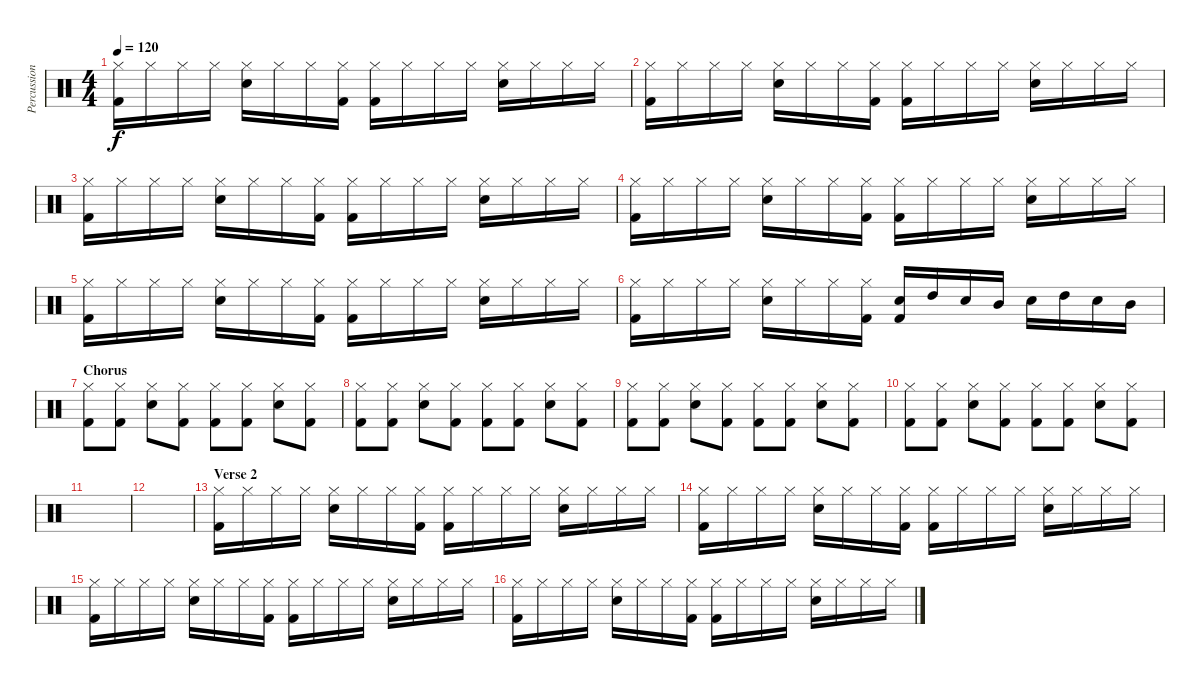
\track ("Percussion" "Percussion") {instrument percussion}
\staff {score}
\articulation defaults
\ts (4 4)
\tempo 120
\clef neutral
\ks c
("Hi-Hat (closed)" "Kick (hit) 2").16{dy f} "Hi-Hat (closed)".16 "Hi-Hat (closed)".16 "Hi-Hat (closed)".16 ("Hi-Hat (closed)" "Electric Snare (hit)").16 "Hi-Hat (closed)".16 "Hi-Hat (closed)".16 ("Hi-Hat (closed)" "Kick (hit) 2").16 ("Hi-Hat (closed)" "Kick (hit) 2").16 "Hi-Hat (closed)".16 "Hi-Hat (closed)".16 "Hi-Hat (closed)".16 ("Hi-Hat (closed)" "Electric Snare (hit)").16 "Hi-Hat (closed)".16 "Hi-Hat (closed)".16 "Hi-Hat (closed)".16 |
("Hi-Hat (closed)" "Kick (hit) 2").16 "Hi-Hat (closed)".16 "Hi-Hat (closed)".16 "Hi-Hat (closed)".16 ("Hi-Hat (closed)" "Electric Snare (hit)").16 "Hi-Hat (closed)".16 "Hi-Hat (closed)".16 ("Hi-Hat (closed)" "Kick (hit) 2").16 ("Hi-Hat (closed)" "Kick (hit) 2").16 "Hi-Hat (closed)".16 "Hi-Hat (closed)".16 "Hi-Hat (closed)".16 ("Hi-Hat (closed)" "Electric Snare (hit)").16 "Hi-Hat (closed)".16 "Hi-Hat (closed)".16 "Hi-Hat (closed)".16 |
("Hi-Hat (closed)" "Kick (hit) 2").16 "Hi-Hat (closed)".16 "Hi-Hat (closed)".16 "Hi-Hat (closed)".16 ("Hi-Hat (closed)" "Electric Snare (hit)").16 "Hi-Hat (closed)".16 "Hi-Hat (closed)".16 ("Hi-Hat (closed)" "Kick (hit) 2").16 ("Hi-Hat (closed)" "Kick (hit) 2").16 "Hi-Hat (closed)".16 "Hi-Hat (closed)".16 "Hi-Hat (closed)".16 ("Hi-Hat (closed)" "Electric Snare (hit)").16 "Hi-Hat (closed)".16 "Hi-Hat (closed)".16 "Hi-Hat (closed)".16 |
("Hi-Hat (closed)" "Kick (hit) 2").16 "Hi-Hat (closed)".16 "Hi-Hat (closed)".16 "Hi-Hat (closed)".16 ("Hi-Hat (closed)" "Electric Snare (hit)").16 "Hi-Hat (closed)".16 "Hi-Hat (closed)".16 ("Hi-Hat (closed)" "Kick (hit) 2").16 ("Hi-Hat (closed)" "Kick (hit) 2").16 "Hi-Hat (closed)".16 "Hi-Hat (closed)".16 "Hi-Hat (closed)".16 ("Hi-Hat (closed)" "Electric Snare (hit)").16 "Hi-Hat (closed)".16 "Hi-Hat (closed)".16 "Hi-Hat (closed)".16 |
("Hi-Hat (closed)" "Kick (hit) 2").16 "Hi-Hat (closed)".16 "Hi-Hat (closed)".16 "Hi-Hat (closed)".16 ("Hi-Hat (closed)" "Electric Snare (hit)").16 "Hi-Hat (closed)".16 "Hi-Hat (closed)".16 ("Hi-Hat (closed)" "Kick (hit) 2").16 ("Hi-Hat (closed)" "Kick (hit) 2").16 "Hi-Hat (closed)".16 "Hi-Hat (closed)".16 "Hi-Hat (closed)".16 ("Hi-Hat (closed)" "Electric Snare (hit)").16 "Hi-Hat (closed)".16 "Hi-Hat (closed)".16 "Hi-Hat (closed)".16 |
("Hi-Hat (closed)" "Kick (hit) 2").16 "Hi-Hat (closed)".16 "Hi-Hat (closed)".16 "Hi-Hat (closed)".16 ("Hi-Hat (closed)" "Electric Snare (hit)").16 "Hi-Hat (closed)".16 "Hi-Hat (closed)".16 ("Hi-Hat (closed)" "Kick (hit) 2").16 ("Electric Snare (hit)" "Kick (hit) 2").16 "High Tom (hit)".16 "Electric Snare (hit)".16 "Mid Tom (hit)".16 "Electric Snare (hit)".16 "High Tom (hit)".16 "Electric Snare (hit)".16 "Mid Tom (hit)".16 |
\section ("" "Chorus")
("Hi-Hat (closed)" "Kick (hit) 2").8 ("Hi-Hat (closed)" "Kick (hit) 2").8 ("Hi-Hat (closed)" "Electric Snare (hit)").8 ("Hi-Hat (closed)" "Kick (hit) 2").8 ("Hi-Hat (closed)" "Kick (hit) 2").8 ("Hi-Hat (closed)" "Kick (hit) 2").8 ("Hi-Hat (closed)" "Electric Snare (hit)").8 ("Hi-Hat (closed)" "Kick (hit) 2").8 |
("Hi-Hat (closed)" "Kick (hit) 2").8 ("Hi-Hat (closed)" "Kick (hit) 2").8 ("Hi-Hat (closed)" "Electric Snare (hit)").8 ("Hi-Hat (closed)" "Kick (hit) 2").8 ("Hi-Hat (closed)" "Kick (hit) 2").8 ("Hi-Hat (closed)" "Kick (hit) 2").8 ("Hi-Hat (closed)" "Electric Snare (hit)").8 ("Hi-Hat (closed)" "Kick (hit) 2").8 |
("Hi-Hat (closed)" "Kick (hit) 2").8 ("Hi-Hat (closed)" "Kick (hit) 2").8 ("Hi-Hat (closed)" "Electric Snare (hit)").8 ("Hi-Hat (closed)" "Kick (hit) 2").8 ("Hi-Hat (closed)" "Kick (hit) 2").8 ("Hi-Hat (closed)" "Kick (hit) 2").8 ("Hi-Hat (closed)" "Electric Snare (hit)").8 ("Hi-Hat (closed)" "Kick (hit) 2").8 |
("Hi-Hat (closed)" "Kick (hit) 2").8 ("Hi-Hat (closed)" "Kick (hit) 2").8 ("Hi-Hat (closed)" "Electric Snare (hit)").8 ("Hi-Hat (closed)" "Kick (hit) 2").8 ("Hi-Hat (closed)" "Kick (hit) 2").8 ("Hi-Hat (closed)" "Kick (hit) 2").8 ("Hi-Hat (closed)" "Electric Snare (hit)").8 ("Hi-Hat (closed)" "Kick (hit) 2").8 |
|
|
\section ("" "Verse 2")
("Hi-Hat (closed)" "Kick (hit) 2").16 "Hi-Hat (closed)".16 "Hi-Hat (closed)".16 "Hi-Hat (closed)".16 ("Hi-Hat (closed)" "Electric Snare (hit)").16 "Hi-Hat (closed)".16 "Hi-Hat (closed)".16 ("Hi-Hat (closed)" "Kick (hit) 2").16 ("Hi-Hat (closed)" "Kick (hit) 2").16 "Hi-Hat (closed)".16 "Hi-Hat (closed)".16 "Hi-Hat (closed)".16 ("Hi-Hat (closed)" "Electric Snare (hit)").16 "Hi-Hat (closed)".16 "Hi-Hat (closed)".16 "Hi-Hat (closed)".16 |
("Hi-Hat (closed)" "Kick (hit) 2").16 "Hi-Hat (closed)".16 "Hi-Hat (closed)".16 "Hi-Hat (closed)".16 ("Hi-Hat (closed)" "Electric Snare (hit)").16 "Hi-Hat (closed)".16 "Hi-Hat (closed)".16 ("Hi-Hat (closed)" "Kick (hit) 2").16 ("Hi-Hat (closed)" "Kick (hit) 2").16 "Hi-Hat (closed)".16 "Hi-Hat (closed)".16 "Hi-Hat (closed)".16 ("Hi-Hat (closed)" "Electric Snare (hit)").16 "Hi-Hat (closed)".16 "Hi-Hat (closed)".16 "Hi-Hat (closed)".16 |
("Hi-Hat (closed)" "Kick (hit) 2").16 "Hi-Hat (closed)".16 "Hi-Hat (closed)".16 "Hi-Hat (closed)".16 ("Hi-Hat (closed)" "Electric Snare (hit)").16 "Hi-Hat (closed)".16 "Hi-Hat (closed)".16 ("Hi-Hat (closed)" "Kick (hit) 2").16 ("Hi-Hat (closed)" "Kick (hit) 2").16 "Hi-Hat (closed)".16 "Hi-Hat (closed)".16 "Hi-Hat (closed)".16 ("Hi-Hat (closed)" "Electric Snare (hit)").16 "Hi-Hat (closed)".16 "Hi-Hat (closed)".16 "Hi-Hat (closed)".16 |
("Hi-Hat (closed)" "Kick (hit) 2").16 "Hi-Hat (closed)".16 "Hi-Hat (closed)".16 "Hi-Hat (closed)".16 ("Hi-Hat (closed)" "Electric Snare (hit)").16 "Hi-Hat (closed)".16 "Hi-Hat (closed)".16 ("Hi-Hat (closed)" "Kick (hit) 2").16 ("Hi-Hat (closed)" "Kick (hit) 2").16 "Hi-Hat (closed)".16 "Hi-Hat (closed)".16 "Hi-Hat (closed)".16 ("Hi-Hat (closed)" "Electric Snare (hit)").16 "Hi-Hat (closed)".16 "Hi-Hat (closed)".16 "Hi-Hat (closed)".16
